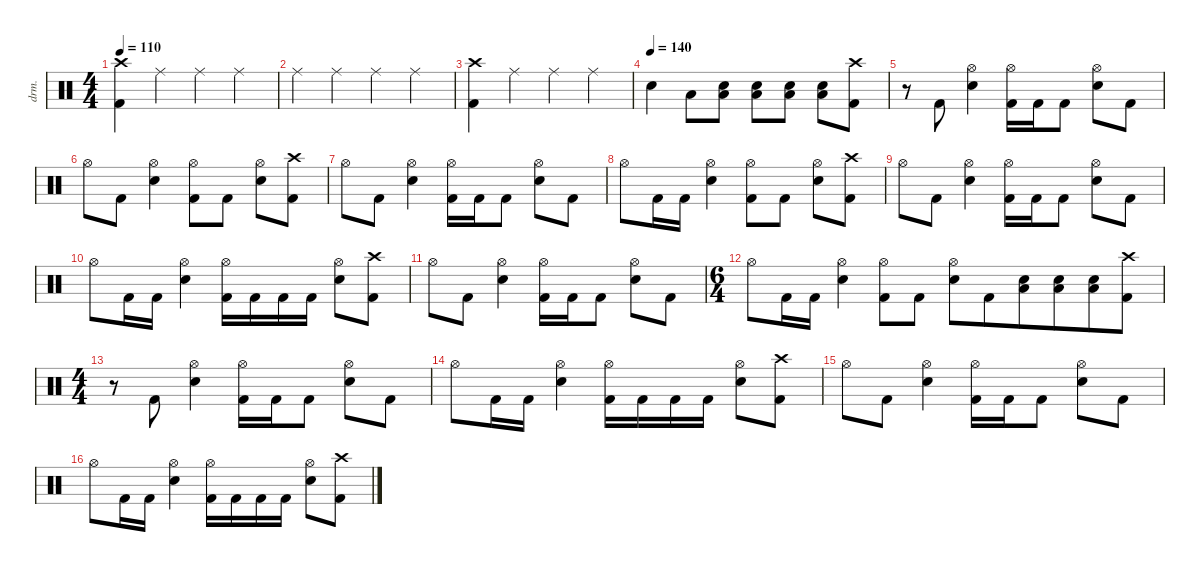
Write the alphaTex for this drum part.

\defaultSystemsLayout 4
\hideDynamics
\bracketExtendMode nobrackets
\otherSystemsTrackNameOrientation horizontal
\track ("Drums" "drm.") {instrument percussion}
\staff {score}
\articulation defaults
\ts (4 4)
\tempo 110
\clef neutral
\ks c
("Kick (hit) 2" "Crash high (hit)").4{dy f beam Down} "Ride (middle)".4{beam Down} "Ride (middle)".4{beam Down} "Ride (middle)".4{beam Down} |
"Ride (middle)".4{beam Down} "Ride (middle)".4{beam Down} "Ride (middle)".4{beam Down} "Ride (middle)".4{beam Down} |
("Crash high (hit)" "Kick (hit) 2").4{beam Down} "Ride (middle)".4{beam Down} "Ride (middle)".4{beam Down} "Ride (middle)".4{beam Down} |
\tempo (140)
"Snare (hit) 2".4{beam Down} "Low Tom (hit)".8{dy mf beam Down} ("Snare (hit) 2" "Low Tom (hit)").8{dy f beam Down} ("Snare (hit) 2" "Low Tom (hit)").8{beam Down} ("Snare (hit) 2" "Low Tom (hit)").8{beam Down} ("Snare (hit) 2" "Low Tom (hit)").8{beam Down} ("Crash high (hit)" "Kick (hit) 2").8{beam Down} |
r.8{beam Down} "Kick (hit) 2".8{beam Up} ("Snare (hit) 2" "Hi-Hat (open)").4{beam Down} ("Kick (hit) 2" "Hi-Hat (open)").16{beam Down} "Kick (hit) 2".16{beam Down} "Kick (hit) 2".8{beam Down} ("Hi-Hat (open)" "Snare (hit) 2").8{beam Down} "Kick (hit) 2".8{beam Down} |
"Hi-Hat (open)".8{beam Down} "Kick (hit) 2".8{beam Down} ("Snare (hit) 2" "Hi-Hat (open)").4{beam Down} ("Hi-Hat (open)" "Kick (hit) 2").8{beam Down} "Kick (hit) 2".8{beam Down} ("Hi-Hat (open)" "Snare (hit) 2").8{beam Down} ("Kick (hit) 2" "Crash high (hit)").8{beam Down} |
"Hi-Hat (open)".8{beam Down} "Kick (hit) 2".8{beam Down} ("Snare (hit) 2" "Hi-Hat (open)").4{beam Down} ("Kick (hit) 2" "Hi-Hat (open)").16{beam Down} "Kick (hit) 2".16{beam Down} "Kick (hit) 2".8{beam Down} ("Hi-Hat (open)" "Snare (hit) 2").8{beam Down} "Kick (hit) 2".8{beam Down} |
"Hi-Hat (open)".8{beam Down} "Kick (hit) 2".16{beam Down} "Kick (hit) 2".16{beam Down} ("Snare (hit) 2" "Hi-Hat (open)").4{beam Down} ("Hi-Hat (open)" "Kick (hit) 2").8{beam Down} "Kick (hit) 2".8{beam Down} ("Hi-Hat (open)" "Snare (hit) 2").8{beam Down} ("Crash high (hit)" "Kick (hit) 2").8{beam Down} |
"Hi-Hat (open)".8{beam Down} "Kick (hit) 2".8{beam Down} ("Snare (hit) 2" "Hi-Hat (open)").4{beam Down} ("Kick (hit) 2" "Hi-Hat (open)").16{beam Down} "Kick (hit) 2".16{beam Down} "Kick (hit) 2".8{beam Down} ("Hi-Hat (open)" "Snare (hit) 2").8{beam Down} "Kick (hit) 2".8{beam Down} |
"Hi-Hat (open)".8{beam Down} "Kick (hit) 2".16{beam Down} "Kick (hit) 2".16{beam Down} ("Snare (hit) 2" "Hi-Hat (open)").4{beam Down} ("Hi-Hat (open)" "Kick (hit) 2").16{beam Down} "Kick (hit) 2".16{beam Down} "Kick (hit) 2".16{beam Down} "Kick (hit) 2".16{beam Down} ("Hi-Hat (open)" "Snare (hit) 2").8{beam Down} ("Kick (hit) 2" "Crash high (hit)").8{beam Down} |
"Hi-Hat (open)".8{beam Down} "Kick (hit) 2".8{beam Down} ("Snare (hit) 2" "Hi-Hat (open)").4{beam Down} ("Kick (hit) 2" "Hi-Hat (open)").16{beam Down} "Kick (hit) 2".16{beam Down} "Kick (hit) 2".8{beam Down} ("Hi-Hat (open)" "Snare (hit) 2").8{beam Down} "Kick (hit) 2".8{beam Down} |
\ts (6 4)
\beaming (8 6 6)
"Hi-Hat (open)".8{beam Down} "Kick (hit) 2".16{beam Down} "Kick (hit) 2".16{beam Down} ("Snare (hit) 2" "Hi-Hat (open)").4{beam Down} ("Hi-Hat (open)" "Kick (hit) 2").8{beam Down} "Kick (hit) 2".8{beam Down} ("Hi-Hat (open)" "Snare (hit) 2").8{beam Down} "Kick (hit) 2".8{beam Down} ("Snare (hit) 2" "Low Tom (hit)").8{beam Down} ("Low Tom (hit)" "Snare (hit) 2").8{beam Down} ("Low Tom (hit)" "Snare (hit) 2").8{beam Down} ("Kick (hit) 2" "Crash high (hit)").8{beam Down} |
\ts (4 4)
\beaming (8 2 2 2 2)
r.8{beam Down} "Kick (hit) 2".8{beam Up} ("Snare (hit) 2" "Hi-Hat (open)").4{beam Down} ("Kick (hit) 2" "Hi-Hat (open)").16{beam Down} "Kick (hit) 2".16{beam Down} "Kick (hit) 2".8{beam Down} ("Hi-Hat (open)" "Snare (hit) 2").8{beam Down} "Kick (hit) 2".8{beam Down} |
"Hi-Hat (open)".8{beam Down} "Kick (hit) 2".16{beam Down} "Kick (hit) 2".16{beam Down} ("Snare (hit) 2" "Hi-Hat (open)").4{beam Down} ("Hi-Hat (open)" "Kick (hit) 2").16{beam Down} "Kick (hit) 2".16{beam Down} "Kick (hit) 2".16{beam Down} "Kick (hit) 2".16{beam Down} ("Hi-Hat (open)" "Snare (hit) 2").8{beam Down} ("Kick (hit) 2" "Crash high (hit)").8{beam Down} |
"Hi-Hat (open)".8{beam Down} "Kick (hit) 2".8{beam Down} ("Snare (hit) 2" "Hi-Hat (open)").4{beam Down} ("Kick (hit) 2" "Hi-Hat (open)").16{beam Down} "Kick (hit) 2".16{beam Down} "Kick (hit) 2".8{beam Down} ("Hi-Hat (open)" "Snare (hit) 2").8{beam Down} "Kick (hit) 2".8{beam Down} |
"Hi-Hat (open)".8{beam Down} "Kick (hit) 2".16{beam Down} "Kick (hit) 2".16{beam Down} ("Snare (hit) 2" "Hi-Hat (open)").4{beam Down} ("Hi-Hat (open)" "Kick (hit) 2").16{beam Down} "Kick (hit) 2".16{beam Down} "Kick (hit) 2".16{beam Down} "Kick (hit) 2".16{beam Down} ("Hi-Hat (open)" "Snare (hit) 2").8{beam Down} ("Kick (hit) 2" "Crash high (hit)").8{beam Down}
